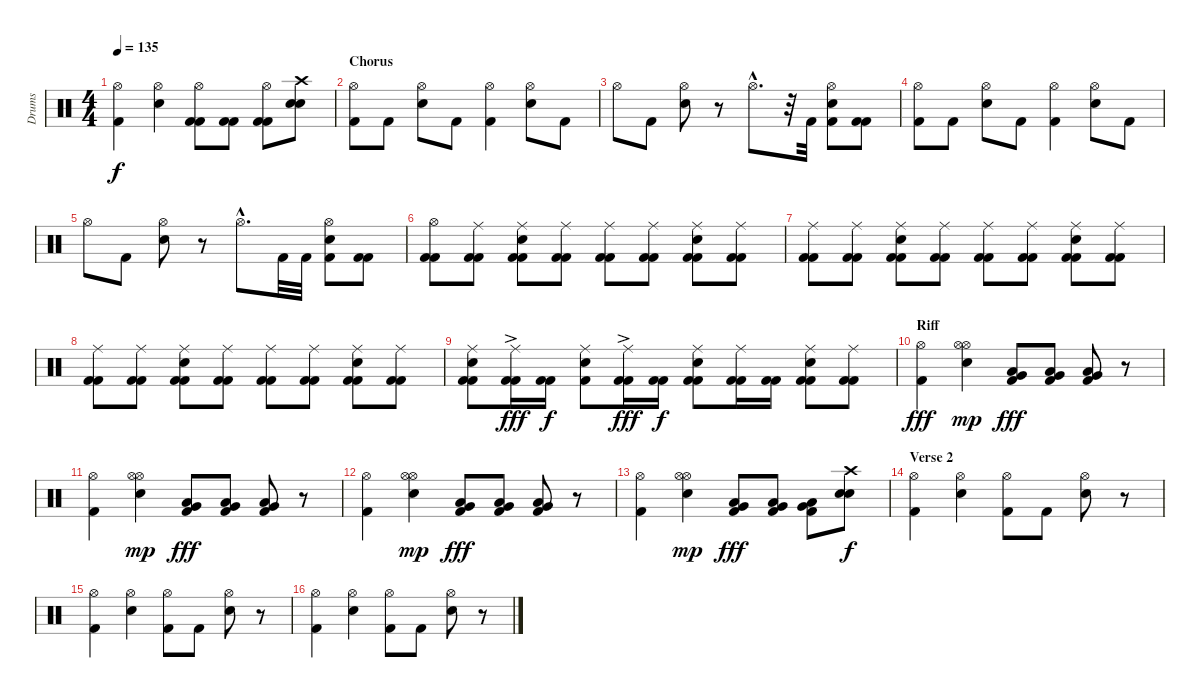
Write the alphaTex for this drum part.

\track ("Drums" "Drums") {instrument percussion}
\staff {score}
\articulation defaults
\ts (4 4)
\tempo 135
\clef neutral
\ks c
("Hi-Hat (open)" "Kick (hit) 2").4{dy f} ("Hi-Hat (open)" "Electric Snare (hit)").4 ("Kick (hit) 2" "Kick (hit) 2" "Hi-Hat (open)").8 ("Kick (hit) 2" "Kick (hit) 2").8 ("Kick (hit) 2" "Kick (hit) 2" "Hi-Hat (open)").8 ("Crash high (hit)" "Electric Snare (hit)" "Electric Snare (hit)").8 |
\section ("" "Chorus")
("Hi-Hat (open)" "Kick (hit) 2").8 "Kick (hit) 2".8 ("Hi-Hat (open)" "Electric Snare (hit)").8 "Kick (hit) 2".8 ("Hi-Hat (open)" "Kick (hit) 2").4 ("Hi-Hat (open)" "Electric Snare (hit)").8 "Kick (hit) 2".8 |
"Hi-Hat (open)".8 "Kick (hit) 2".8 ("Hi-Hat (open)" "Electric Snare (hit)").8 r.8 "Hi-Hat (open)"{hac}.8{d} r.32 "Kick (hit) 2".32 ("Hi-Hat (open)" "Electric Snare (hit)" "Kick (hit) 2").8 ("Kick (hit) 2" "Kick (hit) 2").8 |
("Hi-Hat (open)" "Kick (hit) 2").8 "Kick (hit) 2".8 ("Hi-Hat (open)" "Electric Snare (hit)").8 "Kick (hit) 2".8 ("Hi-Hat (open)" "Kick (hit) 2").4 ("Hi-Hat (open)" "Electric Snare (hit)").8 "Kick (hit) 2".8 |
"Hi-Hat (open)".8 "Kick (hit) 2".8 ("Hi-Hat (open)" "Electric Snare (hit)").8 r.8 "Hi-Hat (open)"{hac}.8{d} "Kick (hit) 2".32 "Kick (hit) 2".32 ("Hi-Hat (open)" "Electric Snare (hit)" "Kick (hit) 2").8 ("Kick (hit) 2" "Kick (hit) 2").8 |
("Hi-Hat (open)" "Kick (hit) 2" "Kick (hit) 2").8 ("Ride (middle)" "Kick (hit) 2" "Kick (hit) 2").8 ("Ride (middle)" "Kick (hit) 2" "Electric Snare (hit)" "Kick (hit) 2").8 ("Ride (middle)" "Kick (hit) 2" "Kick (hit) 2").8 ("Ride (middle)" "Kick (hit) 2" "Kick (hit) 2").8 ("Ride (middle)" "Kick (hit) 2" "Kick (hit) 2").8 ("Ride (middle)" "Kick (hit) 2" "Electric Snare (hit)" "Kick (hit) 2").8 ("Ride (middle)" "Kick (hit) 2" "Kick (hit) 2").8 |
("Ride (middle)" "Kick (hit) 2" "Kick (hit) 2").8 ("Ride (middle)" "Kick (hit) 2" "Kick (hit) 2").8 ("Ride (middle)" "Kick (hit) 2" "Electric Snare (hit)" "Kick (hit) 2").8 ("Ride (middle)" "Kick (hit) 2" "Kick (hit) 2").8 ("Ride (middle)" "Kick (hit) 2" "Kick (hit) 2").8 ("Ride (middle)" "Kick (hit) 2" "Kick (hit) 2").8 ("Ride (middle)" "Kick (hit) 2" "Electric Snare (hit)" "Kick (hit) 2").8 ("Ride (middle)" "Kick (hit) 2" "Kick (hit) 2").8 |
("Ride (middle)" "Kick (hit) 2" "Kick (hit) 2").8 ("Ride (middle)" "Kick (hit) 2" "Kick (hit) 2").8 ("Ride (middle)" "Kick (hit) 2" "Electric Snare (hit)" "Kick (hit) 2").8 ("Ride (middle)" "Kick (hit) 2" "Kick (hit) 2").8 ("Ride (middle)" "Kick (hit) 2" "Kick (hit) 2").8 ("Ride (middle)" "Kick (hit) 2" "Kick (hit) 2").8 ("Ride (middle)" "Kick (hit) 2" "Electric Snare (hit)" "Kick (hit) 2").8 ("Ride (middle)" "Kick (hit) 2" "Kick (hit) 2").8 |
("Ride (middle)" "Electric Snare (hit)" "Kick (hit) 2" "Kick (hit) 2").8 ("Ride (middle)"{ac} "Kick (hit) 2" "Kick (hit) 2").16{dy fff} ("Kick (hit) 2" "Kick (hit) 2").16{dy f} ("Ride (middle)" "Electric Snare (hit)" "Kick (hit) 2").8 ("Ride (middle)"{ac} "Kick (hit) 2" "Kick (hit) 2").16{dy fff} ("Kick (hit) 2" "Kick (hit) 2").16{dy f} ("Ride (middle)" "Electric Snare (hit)" "Kick (hit) 2" "Kick (hit) 2").8 ("Ride (middle)" "Kick (hit) 2" "Kick (hit) 2").16 ("Kick (hit) 2" "Kick (hit) 2").16 ("Ride (middle)" "Kick (hit) 2" "Electric Snare (hit)" "Kick (hit) 2").8 ("Ride (middle)" "Kick (hit) 2" "Kick (hit) 2").8 |
\section ("" "Riff")
("Kick (hit) 2" "Hi-Hat (open)").4{dy fff} ("Electric Snare (hit)" "Hi-Hat (open)" "Hi-Hat (open)").4{dy mp} ("Kick (hit) 2" "Very Low Tom (hit)" "Low Tom (hit)").8{dy fff} ("Kick (hit) 2" "Very Low Tom (hit)" "Low Tom (hit)").8 ("Kick (hit) 2" "Very Low Tom (hit)" "Low Tom (hit)").8 r.8 |
("Kick (hit) 2" "Hi-Hat (open)").4 ("Electric Snare (hit)" "Hi-Hat (open)" "Hi-Hat (open)").4{dy mp} ("Kick (hit) 2" "Very Low Tom (hit)" "Low Tom (hit)").8{dy fff} ("Kick (hit) 2" "Very Low Tom (hit)" "Low Tom (hit)").8 ("Kick (hit) 2" "Very Low Tom (hit)" "Low Tom (hit)").8 r.8 |
("Kick (hit) 2" "Hi-Hat (open)").4 ("Electric Snare (hit)" "Hi-Hat (open)" "Hi-Hat (open)").4{dy mp} ("Kick (hit) 2" "Very Low Tom (hit)" "Low Tom (hit)").8{dy fff} ("Kick (hit) 2" "Very Low Tom (hit)" "Low Tom (hit)").8 ("Kick (hit) 2" "Very Low Tom (hit)" "Low Tom (hit)").8 r.8 |
("Kick (hit) 2" "Hi-Hat (open)").4 ("Electric Snare (hit)" "Hi-Hat (open)" "Hi-Hat (open)").4{dy mp} ("Kick (hit) 2" "Very Low Tom (hit)" "Low Tom (hit)").8{dy fff} ("Kick (hit) 2" "Very Low Tom (hit)" "Low Tom (hit)").8 ("Kick (hit) 2" "Very Low Tom (hit)" "Low Tom (hit)").8 ("Crash high (hit)" "Electric Snare (hit)" "Electric Snare (hit)").8{dy f} |
\section ("" "Verse 2")
("Hi-Hat (open)" "Kick (hit) 2").4 ("Hi-Hat (open)" "Electric Snare (hit)").4 ("Hi-Hat (open)" "Kick (hit) 2").8 "Kick (hit) 2".8 ("Hi-Hat (open)" "Snare (hit) 2").8 r.8 |
("Hi-Hat (open)" "Kick (hit) 2").4 ("Hi-Hat (open)" "Electric Snare (hit)").4 ("Hi-Hat (open)" "Kick (hit) 2").8 "Kick (hit) 2".8 ("Hi-Hat (open)" "Snare (hit) 2").8 r.8 |
("Hi-Hat (open)" "Kick (hit) 2").4 ("Hi-Hat (open)" "Electric Snare (hit)").4 ("Hi-Hat (open)" "Kick (hit) 2").8 "Kick (hit) 2".8 ("Hi-Hat (open)" "Snare (hit) 2").8 r.8
